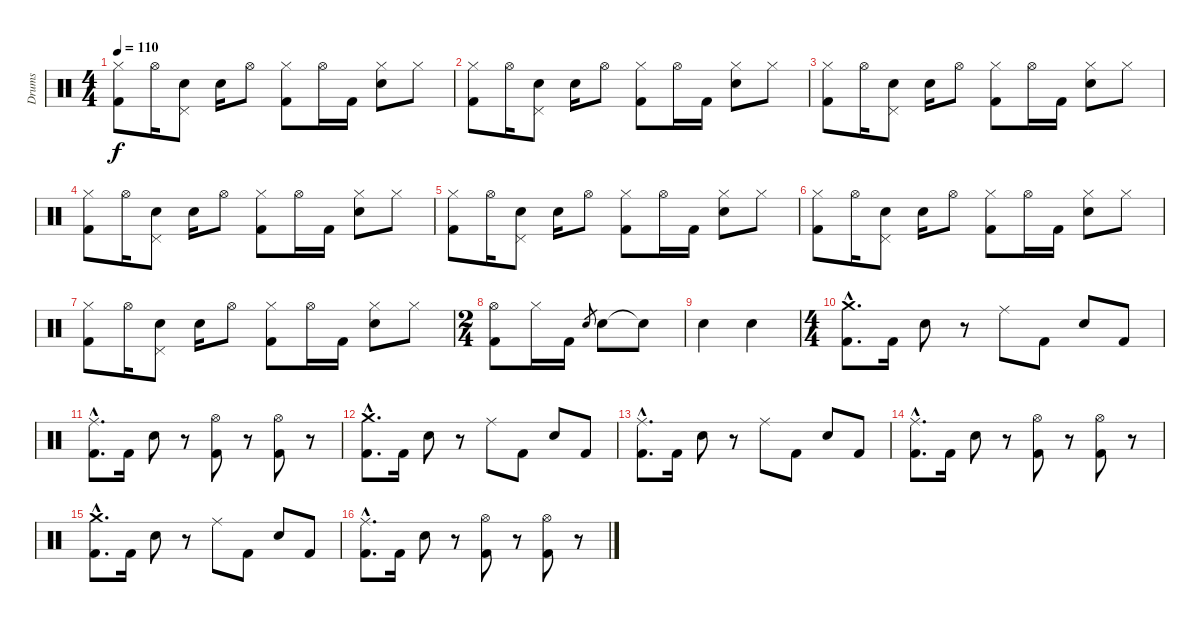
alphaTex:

\track ("Drums" "Drums") {instrument percussion}
\staff {score}
\articulation defaults
\ts (4 4)
\tempo 110
\clef neutral
\ks c
("Hi-Hat (closed)" "Kick (hit) 2").8{dy f} "Hi-Hat (open)".16 ("Electric Snare (hit)" "Pedal Hi-Hat (hit)").8 "Electric Snare (hit)".16 "Hi-Hat (open)".8 ("Hi-Hat (closed)" "Kick (hit) 2").8 "Hi-Hat (open)".16 "Kick (hit) 2".16 ("Hi-Hat (closed)" "Electric Snare (hit)").8 "Hi-Hat (closed)".8 |
("Hi-Hat (closed)" "Kick (hit) 2").8 "Hi-Hat (open)".16 ("Electric Snare (hit)" "Pedal Hi-Hat (hit)").8 "Electric Snare (hit)".16 "Hi-Hat (open)".8 ("Hi-Hat (closed)" "Kick (hit) 2").8 "Hi-Hat (open)".16 "Kick (hit) 2".16 ("Hi-Hat (closed)" "Electric Snare (hit)").8 "Hi-Hat (closed)".8 |
("Hi-Hat (closed)" "Kick (hit) 2").8 "Hi-Hat (open)".16 ("Electric Snare (hit)" "Pedal Hi-Hat (hit)").8 "Electric Snare (hit)".16 "Hi-Hat (open)".8 ("Hi-Hat (closed)" "Kick (hit) 2").8 "Hi-Hat (open)".16 "Kick (hit) 2".16 ("Hi-Hat (closed)" "Electric Snare (hit)").8 "Hi-Hat (closed)".8 |
("Hi-Hat (closed)" "Kick (hit) 2").8 "Hi-Hat (open)".16 ("Electric Snare (hit)" "Pedal Hi-Hat (hit)").8 "Electric Snare (hit)".16 "Hi-Hat (open)".8 ("Hi-Hat (closed)" "Kick (hit) 2").8 "Hi-Hat (open)".16 "Kick (hit) 2".16 ("Hi-Hat (closed)" "Electric Snare (hit)").8 "Hi-Hat (closed)".8 |
("Hi-Hat (closed)" "Kick (hit) 2").8 "Hi-Hat (open)".16 ("Electric Snare (hit)" "Pedal Hi-Hat (hit)").8 "Electric Snare (hit)".16 "Hi-Hat (open)".8 ("Hi-Hat (closed)" "Kick (hit) 2").8 "Hi-Hat (open)".16 "Kick (hit) 2".16 ("Hi-Hat (closed)" "Electric Snare (hit)").8 "Hi-Hat (closed)".8 |
("Hi-Hat (closed)" "Kick (hit) 2").8 "Hi-Hat (open)".16 ("Electric Snare (hit)" "Pedal Hi-Hat (hit)").8 "Electric Snare (hit)".16 "Hi-Hat (open)".8 ("Hi-Hat (closed)" "Kick (hit) 2").8 "Hi-Hat (open)".16 "Kick (hit) 2".16 ("Hi-Hat (closed)" "Electric Snare (hit)").8 "Hi-Hat (closed)".8 |
("Hi-Hat (closed)" "Kick (hit) 2").8 "Hi-Hat (open)".16 ("Electric Snare (hit)" "Pedal Hi-Hat (hit)").8 "Electric Snare (hit)".16 "Hi-Hat (open)".8 ("Hi-Hat (closed)" "Kick (hit) 2").8 "Hi-Hat (open)".16 "Kick (hit) 2".16 ("Hi-Hat (closed)" "Electric Snare (hit)").8 "Hi-Hat (closed)".8 |
\ts (2 4)
("Hi-Hat (open)" "Kick (hit) 2").8 "Hi-Hat (closed)".16 "Kick (hit) 2".16 "Electric Snare (hit)".8{gr} "Electric Snare (hit)".8 "Snare (hit)"{t}.8 |
"Electric Snare (hit)".4 "Electric Snare (hit)".4 |
\ts (4 4)
("Crash medium (hit)"{hac} "Kick (hit) 2"{hac}).8{d} "Kick (hit) 2".16 "Electric Snare (hit)".8 r.8 "Ride (middle)".8 "Kick (hit) 2".8 "Electric Snare (hit)".8 "Kick (hit) 2".8 |
("Ride (middle)"{hac} "Kick (hit) 2"{hac}).8{d} "Kick (hit) 2".16 "Electric Snare (hit)".8 r.8 ("Hi-Hat (open)" "Kick (hit) 2").8 r.8 ("Hi-Hat (open)" "Kick (hit) 2").8 r.8 |
("Crash medium (hit)"{hac} "Kick (hit) 2"{hac}).8{d} "Kick (hit) 2".16 "Electric Snare (hit)".8 r.8 "Ride (middle)".8 "Kick (hit) 2".8 "Electric Snare (hit)".8 "Kick (hit) 2".8 |
("Ride (middle)"{hac} "Kick (hit) 2"{hac}).8{d} "Kick (hit) 2".16 "Electric Snare (hit)".8 r.8 "Ride (middle)".8 "Kick (hit) 2".8 "Electric Snare (hit)".8 "Kick (hit) 2".8 |
("Ride (middle)"{hac} "Kick (hit) 2"{hac}).8{d} "Kick (hit) 2".16 "Electric Snare (hit)".8 r.8 ("Hi-Hat (open)" "Kick (hit) 2").8 r.8 ("Hi-Hat (open)" "Kick (hit) 2").8 r.8 |
("Crash medium (hit)"{hac} "Kick (hit) 2"{hac}).8{d} "Kick (hit) 2".16 "Electric Snare (hit)".8 r.8 "Ride (middle)".8 "Kick (hit) 2".8 "Electric Snare (hit)".8 "Kick (hit) 2".8 |
("Ride (middle)"{hac} "Kick (hit) 2"{hac}).8{d} "Kick (hit) 2".16 "Electric Snare (hit)".8 r.8 ("Hi-Hat (open)" "Kick (hit) 2").8 r.8 ("Hi-Hat (open)" "Kick (hit) 2").8 r.8
